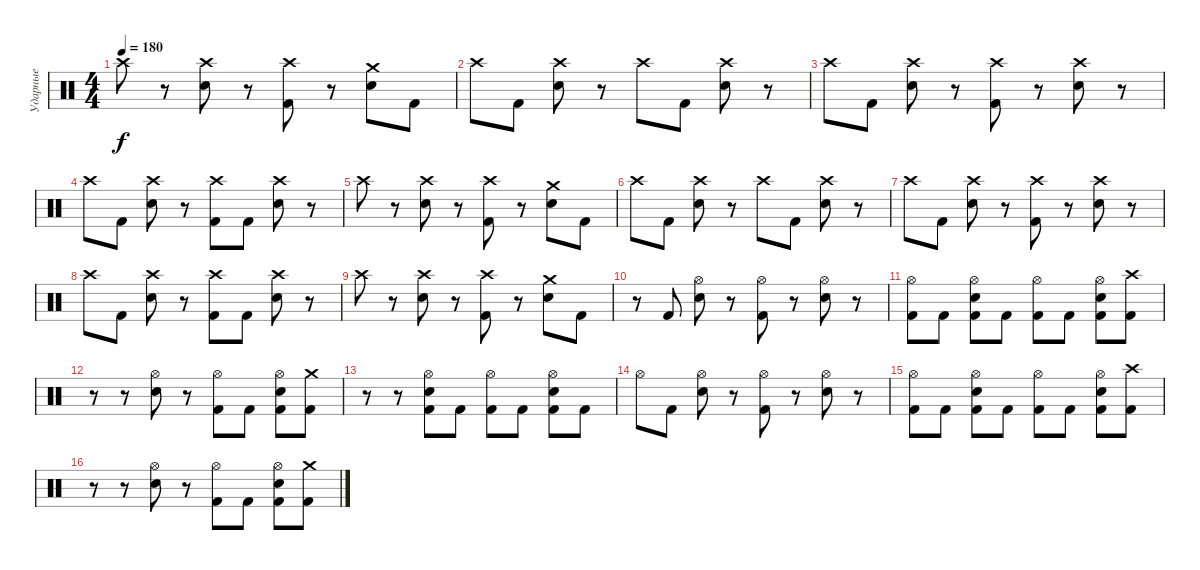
\track ("Ударные" "Ударные") {instrument percussion}
\staff {score}
\articulation defaults
\ts (4 4)
\tempo 180
\clef neutral
\ks c "Crash high (hit)".8{dy f}
r.8 ("Crash high (hit)" "Electric Snare (hit)").8 r.8 ("Crash high (hit)" "Kick (hit) 2").8 r.8 ("Crash medium (hit)" "Electric Snare (hit)").8 "Kick (hit) 2".8 |
"Crash high (hit)".8 "Kick (hit) 2".8 ("Crash high (hit)" "Electric Snare (hit)").8 r.8 "Crash high (hit)".8 "Kick (hit) 2".8 ("Crash high (hit)" "Electric Snare (hit)").8 r.8 |
"Crash high (hit)".8 "Kick (hit) 2".8 ("Crash high (hit)" "Electric Snare (hit)").8 r.8 ("Crash high (hit)" "Kick (hit) 2").8 r.8 ("Crash high (hit)" "Electric Snare (hit)").8 r.8 |
"Crash high (hit)".8 "Kick (hit) 2".8 ("Crash high (hit)" "Electric Snare (hit)").8 r.8 ("Crash high (hit)" "Kick (hit) 2").8 "Kick (hit) 2".8 ("Crash high (hit)" "Electric Snare (hit)").8 r.8 |
"Crash high (hit)".8 r.8 ("Crash high (hit)" "Electric Snare (hit)").8 r.8 ("Crash high (hit)" "Kick (hit) 2").8 r.8 ("Crash medium (hit)" "Electric Snare (hit)").8 "Kick (hit) 2".8 |
"Crash high (hit)".8 "Kick (hit) 2".8 ("Crash high (hit)" "Electric Snare (hit)").8 r.8 "Crash high (hit)".8 "Kick (hit) 2".8 ("Crash high (hit)" "Electric Snare (hit)").8 r.8 |
"Crash high (hit)".8 "Kick (hit) 2".8 ("Crash high (hit)" "Electric Snare (hit)").8 r.8 ("Crash high (hit)" "Kick (hit) 2").8 r.8 ("Crash high (hit)" "Electric Snare (hit)").8 r.8 |
"Crash high (hit)".8 "Kick (hit) 2".8 ("Crash high (hit)" "Electric Snare (hit)").8 r.8 ("Crash high (hit)" "Kick (hit) 2").8 "Kick (hit) 2".8 ("Crash high (hit)" "Electric Snare (hit)").8 r.8 |
"Crash high (hit)".8 r.8 ("Crash high (hit)" "Electric Snare (hit)").8 r.8 ("Crash high (hit)" "Kick (hit) 2").8 r.8 ("Crash medium (hit)" "Electric Snare (hit)").8 "Kick (hit) 2".8 |
r.8 "Kick (hit) 2".8 ("Hi-Hat (open)" "Electric Snare (hit)").8 r.8 ("Hi-Hat (open)" "Kick (hit) 2").8 r.8 ("Hi-Hat (open)" "Electric Snare (hit)").8 r.8 |
("Hi-Hat (open)" "Kick (hit) 2").8 "Kick (hit) 2".8 ("Hi-Hat (open)" "Electric Snare (hit)" "Kick (hit) 2").8 "Kick (hit) 2".8 ("Hi-Hat (open)" "Kick (hit) 2").8 "Kick (hit) 2".8 ("Hi-Hat (open)" "Electric Snare (hit)" "Kick (hit) 2").8 ("Crash high (hit)" "Kick (hit) 2").8 |
r.8 r.8 ("Hi-Hat (open)" "Electric Snare (hit)").8 r.8 ("Hi-Hat (open)" "Kick (hit) 2").8 "Kick (hit) 2".8 ("Hi-Hat (open)" "Electric Snare (hit)" "Kick (hit) 2").8 ("Crash medium (hit)" "Kick (hit) 2").8 |
r.8 r.8 ("Hi-Hat (open)" "Electric Snare (hit)" "Kick (hit) 2").8 "Kick (hit) 2".8 ("Hi-Hat (open)" "Kick (hit) 2").8 "Kick (hit) 2".8 ("Hi-Hat (open)" "Electric Snare (hit)" "Kick (hit) 2").8 "Kick (hit) 2".8 |
"Hi-Hat (open)".8 "Kick (hit) 2".8 ("Hi-Hat (open)" "Electric Snare (hit)").8 r.8 ("Hi-Hat (open)" "Kick (hit) 2").8 r.8 ("Hi-Hat (open)" "Electric Snare (hit)").8 r.8 |
("Hi-Hat (open)" "Kick (hit) 2").8 "Kick (hit) 2".8 ("Hi-Hat (open)" "Electric Snare (hit)" "Kick (hit) 2").8 "Kick (hit) 2".8 ("Hi-Hat (open)" "Kick (hit) 2").8 "Kick (hit) 2".8 ("Hi-Hat (open)" "Electric Snare (hit)" "Kick (hit) 2").8 ("Crash high (hit)" "Kick (hit) 2").8 |
r.8 r.8 ("Hi-Hat (open)" "Electric Snare (hit)").8 r.8 ("Hi-Hat (open)" "Kick (hit) 2").8 "Kick (hit) 2".8 ("Hi-Hat (open)" "Electric Snare (hit)" "Kick (hit) 2").8 ("Crash medium (hit)" "Kick (hit) 2").8
